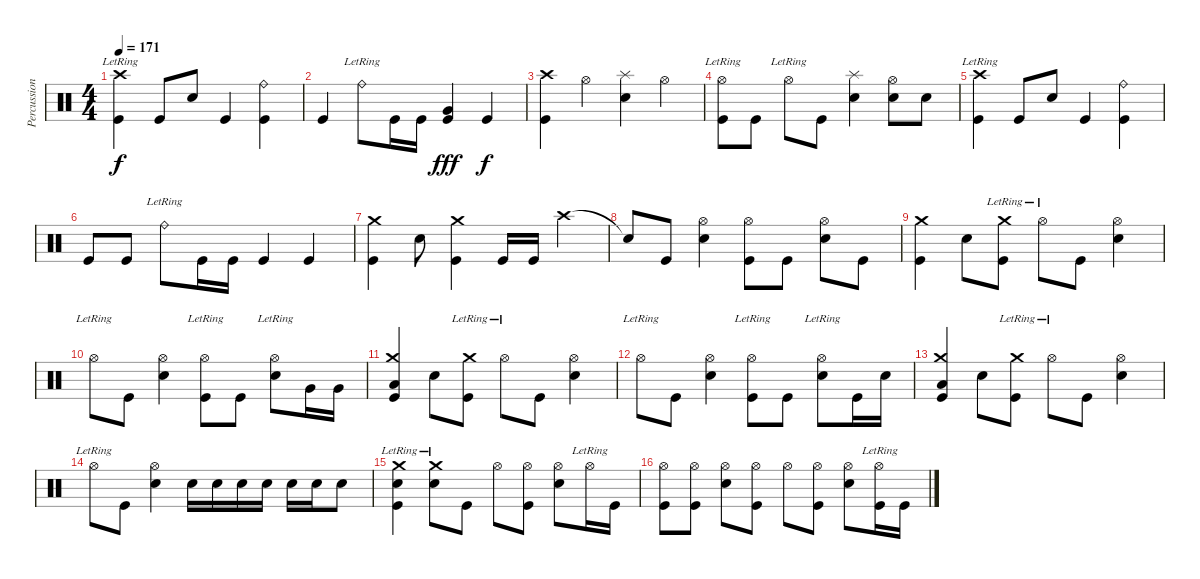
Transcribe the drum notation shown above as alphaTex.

\track ("Percussions" "Percussion") {instrument percussion}
\staff {score}
\articulation defaults
\ts (4 4)
\tempo 171
\clef neutral
\ks c
("Crash high (hit)"{lr} "Kick (hit)").4{dy f} "Kick (hit)".8 "Snare (hit) 2".8 "Kick (hit)".4 ("Ride (bell)" "Kick (hit)").4 |
"Kick (hit)".4 "Ride (bell)"{lr}.8 "Kick (hit)".16 "Kick (hit)".16 ("Very Low Tom (hit)" "Kick (hit)").4{dy fff} "Kick (hit)".4{dy f} |
("Crash high (hit)" "Kick (hit)").4 "Hi-Hat (open)".4 ("Splash (hit)" "Snare (hit) 2").4 "Hi-Hat (open)".4 |
("Hi-Hat (open)"{lr} "Kick (hit)").8 "Kick (hit)".8 "Hi-Hat (open)"{lr}.8 "Kick (hit)".8 ("Splash (hit)" "Snare (hit) 2").4 ("Hi-Hat (open)" "Snare (hit) 2").8 "Snare (hit) 2".8 |
("Crash high (hit)"{lr} "Kick (hit)").4 "Kick (hit)".8 "Snare (hit) 2".8 "Kick (hit)".4 ("Ride (bell)" "Kick (hit)").4 |
"Kick (hit)".8 "Kick (hit)".8 "Ride (bell)"{lr}.8 "Kick (hit)".16 "Kick (hit)".16 "Kick (hit)".4 "Kick (hit)".4 |
("Crash medium (hit)" "Kick (hit)").4 "Snare (hit) 2".8 ("Crash medium (hit)" "Kick (hit)").4 "Kick (hit)".16 "Kick (hit)".16 "Crash high (hit)".4 |
"Snare (hit)"{t}.8 "Kick (hit)".8 ("Hi-Hat (open)" "Snare (hit) 2").4 ("Hi-Hat (open)" "Kick (hit)").8 "Kick (hit)".8 ("Hi-Hat (open)" "Snare (hit) 2").8 "Kick (hit)".8 |
("Crash medium (hit)" "Kick (hit)").4 "Snare (hit) 2".8 ("Crash medium (hit)"{lr} "Kick (hit)").8 "Hi-Hat (open)"{lr}.8 "Kick (hit)".8 ("Hi-Hat (open)" "Snare (hit) 2").4 |
"Hi-Hat (open)"{lr}.8 "Kick (hit)".8 ("Hi-Hat (open)" "Snare (hit) 2").4 ("Hi-Hat (open)"{lr} "Kick (hit)").8 "Kick (hit)".8 ("Hi-Hat (open)"{lr} "Snare (hit) 2").8 "Very Low Tom (hit)".16 "Very Low Tom (hit)".16 |
("Crash medium (hit)" "Low Floor Tom (hit)" "Kick (hit)").4 "Snare (hit) 2".8 ("Crash medium (hit)"{lr} "Kick (hit)").8 "Hi-Hat (open)"{lr}.8 "Kick (hit)".8 ("Hi-Hat (open)" "Snare (hit) 2").4 |
"Hi-Hat (open)"{lr}.8 "Kick (hit)".8 ("Hi-Hat (open)" "Snare (hit) 2").4 ("Hi-Hat (open)"{lr} "Kick (hit)").8 "Kick (hit)".8 ("Hi-Hat (open)"{lr} "Snare (hit) 2").8 "Kick (hit)".16 "Snare (hit) 2".16 |
("Crash medium (hit)" "Low Floor Tom (hit)" "Kick (hit)").4 "Snare (hit) 2".8 ("Crash medium (hit)"{lr} "Kick (hit)").8 "Hi-Hat (open)"{lr}.8 "Kick (hit)".8 ("Hi-Hat (open)" "Snare (hit) 2").4 |
"Hi-Hat (open)"{lr}.8 "Kick (hit)".8 ("Hi-Hat (open)" "Snare (hit) 2").4 "Snare (hit) 2".16 "Snare (hit) 2".16 "Snare (hit) 2".16 "Snare (hit) 2".16 "Snare (hit) 2".16 "Snare (hit) 2".16 "Snare (hit) 2".8 |
("Crash medium (hit)"{lr} "Snare (hit) 2" "Kick (hit)").4 ("Crash medium (hit)"{lr} "Snare (hit) 2").8 "Kick (hit)".8 "Hi-Hat (open)".8 ("Hi-Hat (open)" "Kick (hit)").8 ("Hi-Hat (open)" "Snare (hit) 2").8 "Hi-Hat (open)"{lr}.16 "Kick (hit)".16 |
("Hi-Hat (open)" "Kick (hit)").8 ("Hi-Hat (open)" "Kick (hit)").8 ("Hi-Hat (open)" "Snare (hit) 2").8 ("Hi-Hat (open)" "Kick (hit)").8 "Hi-Hat (open)".8 ("Hi-Hat (open)" "Kick (hit)").8 ("Hi-Hat (open)" "Snare (hit) 2").8 ("Hi-Hat (open)"{lr} "Kick (hit)").16 "Kick (hit)".16
